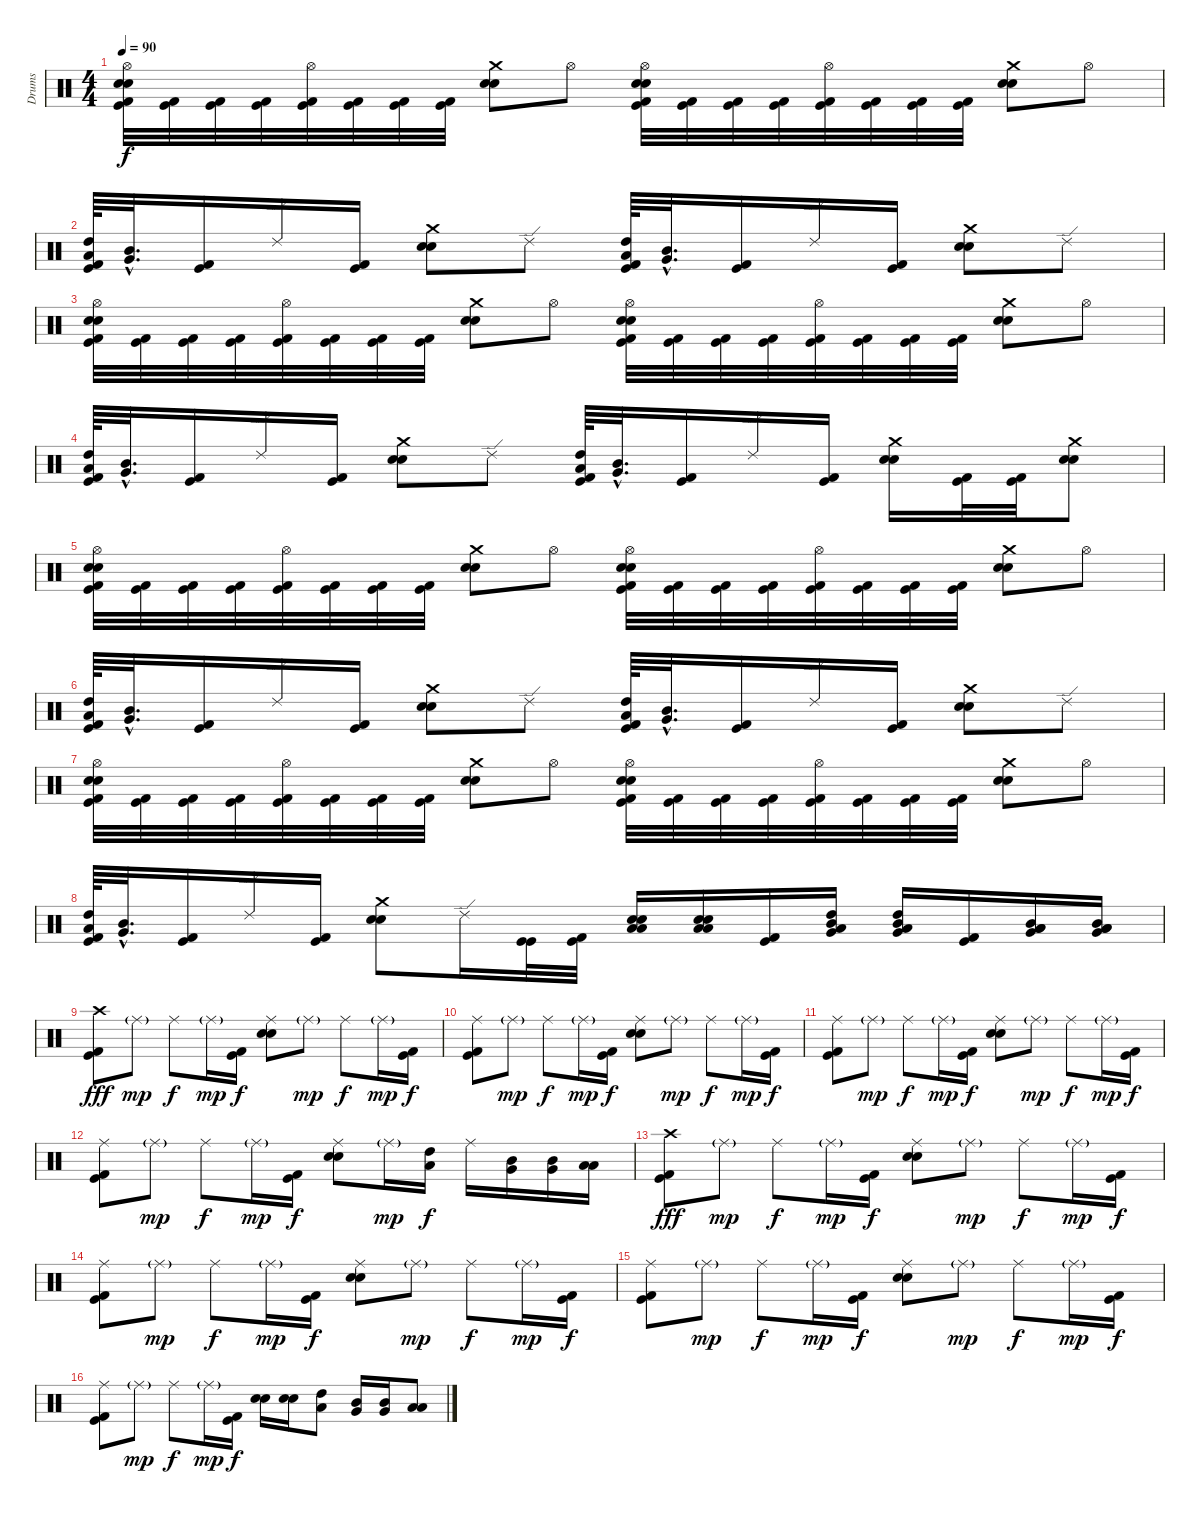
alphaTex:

\track ("Drums" "Drums") {instrument percussion}
\staff {score}
\articulation defaults
\ts (4 4)
\tempo 90
\clef neutral
\ks c
("Hi-Hat (open)" "Electric Snare (hit)" "Snare (hit) 2" "Kick (hit) 2" "Kick (hit)").32{dy f} ("Kick (hit) 2" "Kick (hit)").32 ("Kick (hit) 2" "Kick (hit)").32 ("Kick (hit) 2" "Kick (hit)").32 ("Hi-Hat (open)" "Kick (hit) 2" "Kick (hit)").32 ("Kick (hit) 2" "Kick (hit)").32 ("Kick (hit) 2" "Kick (hit)").32 ("Kick (hit) 2" "Kick (hit)").32 ("Crash medium (hit)" "Electric Snare (hit)" "Snare (hit) 2").8 "Hi-Hat (open)".8 ("Hi-Hat (open)" "Electric Snare (hit)" "Snare (hit) 2" "Kick (hit) 2" "Kick (hit)").32 ("Kick (hit) 2" "Kick (hit)").32 ("Kick (hit) 2" "Kick (hit)").32 ("Kick (hit) 2" "Kick (hit)").32 ("Hi-Hat (open)" "Kick (hit) 2" "Kick (hit)").32 ("Kick (hit) 2" "Kick (hit)").32 ("Kick (hit) 2" "Kick (hit)").32 ("Kick (hit) 2" "Kick (hit)").32 ("Crash medium (hit)" "Electric Snare (hit)" "Snare (hit) 2").8 "Hi-Hat (open)".8 |
("High Tom (hit)" "Low Tom (hit)" "Kick (hit) 2" "Kick (hit)").64 ("Mid Tom (hit)"{hac} "Very Low Tom (hit)"{hac}).32{d} ("Kick (hit) 2" "Kick (hit)").16 "Ride (edge) 2".16 ("Kick (hit) 2" "Kick (hit)").16 ("Crash medium (hit)" "Electric Snare (hit)" "Snare (hit) 2").8 "Ride (edge) 2".8 ("High Tom (hit)" "Low Tom (hit)" "Kick (hit) 2" "Kick (hit)").64 ("Mid Tom (hit)"{hac} "Very Low Tom (hit)"{hac}).32{d} ("Kick (hit) 2" "Kick (hit)").16 "Ride (edge) 2".16 ("Kick (hit) 2" "Kick (hit)").16 ("Crash medium (hit)" "Electric Snare (hit)" "Snare (hit) 2").8 "Ride (edge) 2".8 |
("Hi-Hat (open)" "Electric Snare (hit)" "Snare (hit) 2" "Kick (hit) 2" "Kick (hit)").32 ("Kick (hit) 2" "Kick (hit)").32 ("Kick (hit) 2" "Kick (hit)").32 ("Kick (hit) 2" "Kick (hit)").32 ("Hi-Hat (open)" "Kick (hit) 2" "Kick (hit)").32 ("Kick (hit) 2" "Kick (hit)").32 ("Kick (hit) 2" "Kick (hit)").32 ("Kick (hit) 2" "Kick (hit)").32 ("Crash medium (hit)" "Electric Snare (hit)" "Snare (hit) 2").8 "Hi-Hat (open)".8 ("Hi-Hat (open)" "Electric Snare (hit)" "Snare (hit) 2" "Kick (hit) 2" "Kick (hit)").32 ("Kick (hit) 2" "Kick (hit)").32 ("Kick (hit) 2" "Kick (hit)").32 ("Kick (hit) 2" "Kick (hit)").32 ("Hi-Hat (open)" "Kick (hit) 2" "Kick (hit)").32 ("Kick (hit) 2" "Kick (hit)").32 ("Kick (hit) 2" "Kick (hit)").32 ("Kick (hit) 2" "Kick (hit)").32 ("Crash medium (hit)" "Electric Snare (hit)" "Snare (hit) 2").8 "Hi-Hat (open)".8 |
("High Tom (hit)" "Low Tom (hit)" "Kick (hit) 2" "Kick (hit)").64 ("Mid Tom (hit)"{hac} "Very Low Tom (hit)"{hac}).32{d} ("Kick (hit) 2" "Kick (hit)").16 "Ride (edge) 2".16 ("Kick (hit) 2" "Kick (hit)").16 ("Crash medium (hit)" "Electric Snare (hit)" "Snare (hit) 2").8 "Ride (edge) 2".8 ("High Tom (hit)" "Low Tom (hit)" "Kick (hit) 2" "Kick (hit)").64 ("Mid Tom (hit)"{hac} "Very Low Tom (hit)"{hac}).32{d} ("Kick (hit) 2" "Kick (hit)").16 "Ride (edge) 2".16 ("Kick (hit) 2" "Kick (hit)").16 ("Crash medium (hit)" "Electric Snare (hit)" "Snare (hit) 2").16 ("Kick (hit) 2" "Kick (hit)").32 ("Kick (hit) 2" "Kick (hit)").32 ("Crash medium (hit)" "Electric Snare (hit)" "Snare (hit) 2").8 |
("Hi-Hat (open)" "Electric Snare (hit)" "Snare (hit) 2" "Kick (hit) 2" "Kick (hit)").32 ("Kick (hit) 2" "Kick (hit)").32 ("Kick (hit) 2" "Kick (hit)").32 ("Kick (hit) 2" "Kick (hit)").32 ("Hi-Hat (open)" "Kick (hit) 2" "Kick (hit)").32 ("Kick (hit) 2" "Kick (hit)").32 ("Kick (hit) 2" "Kick (hit)").32 ("Kick (hit) 2" "Kick (hit)").32 ("Crash medium (hit)" "Electric Snare (hit)" "Snare (hit) 2").8 "Hi-Hat (open)".8 ("Hi-Hat (open)" "Electric Snare (hit)" "Snare (hit) 2" "Kick (hit) 2" "Kick (hit)").32 ("Kick (hit) 2" "Kick (hit)").32 ("Kick (hit) 2" "Kick (hit)").32 ("Kick (hit) 2" "Kick (hit)").32 ("Hi-Hat (open)" "Kick (hit) 2" "Kick (hit)").32 ("Kick (hit) 2" "Kick (hit)").32 ("Kick (hit) 2" "Kick (hit)").32 ("Kick (hit) 2" "Kick (hit)").32 ("Crash medium (hit)" "Electric Snare (hit)" "Snare (hit) 2").8 "Hi-Hat (open)".8 |
("High Tom (hit)" "Low Tom (hit)" "Kick (hit) 2" "Kick (hit)").64 ("Mid Tom (hit)"{hac} "Very Low Tom (hit)"{hac}).32{d} ("Kick (hit) 2" "Kick (hit)").16 "Ride (edge) 2".16 ("Kick (hit) 2" "Kick (hit)").16 ("Crash medium (hit)" "Electric Snare (hit)" "Snare (hit) 2").8 "Ride (edge) 2".8 ("High Tom (hit)" "Low Tom (hit)" "Kick (hit) 2" "Kick (hit)").64 ("Mid Tom (hit)"{hac} "Very Low Tom (hit)"{hac}).32{d} ("Kick (hit) 2" "Kick (hit)").16 "Ride (edge) 2".16 ("Kick (hit) 2" "Kick (hit)").16 ("Crash medium (hit)" "Electric Snare (hit)" "Snare (hit) 2").8 "Ride (edge) 2".8 |
("Hi-Hat (open)" "Electric Snare (hit)" "Snare (hit) 2" "Kick (hit) 2" "Kick (hit)").32 ("Kick (hit) 2" "Kick (hit)").32 ("Kick (hit) 2" "Kick (hit)").32 ("Kick (hit) 2" "Kick (hit)").32 ("Hi-Hat (open)" "Kick (hit) 2" "Kick (hit)").32 ("Kick (hit) 2" "Kick (hit)").32 ("Kick (hit) 2" "Kick (hit)").32 ("Kick (hit) 2" "Kick (hit)").32 ("Crash medium (hit)" "Electric Snare (hit)" "Snare (hit) 2").8 "Hi-Hat (open)".8 ("Hi-Hat (open)" "Electric Snare (hit)" "Snare (hit) 2" "Kick (hit) 2" "Kick (hit)").32 ("Kick (hit) 2" "Kick (hit)").32 ("Kick (hit) 2" "Kick (hit)").32 ("Kick (hit) 2" "Kick (hit)").32 ("Hi-Hat (open)" "Kick (hit) 2" "Kick (hit)").32 ("Kick (hit) 2" "Kick (hit)").32 ("Kick (hit) 2" "Kick (hit)").32 ("Kick (hit) 2" "Kick (hit)").32 ("Crash medium (hit)" "Electric Snare (hit)" "Snare (hit) 2").8 "Hi-Hat (open)".8 |
("High Tom (hit)" "Low Tom (hit)" "Kick (hit) 2" "Kick (hit)").64 ("Mid Tom (hit)"{hac} "Very Low Tom (hit)"{hac}).32{d} ("Kick (hit) 2" "Kick (hit)").16 "Ride (edge) 2".16 ("Kick (hit) 2" "Kick (hit)").16 ("Crash medium (hit)" "Electric Snare (hit)" "Snare (hit) 2").8 "Ride (edge) 2".16 ("Kick (hit)" "Kick (hit)").32 ("Kick (hit) 2" "Kick (hit)").32 ("Low Tom (hit)" "Low Floor Tom (hit)" "Electric Snare (hit)" "Snare (hit) 2").16 ("Low Tom (hit)" "Low Floor Tom (hit)" "Electric Snare (hit)" "Snare (hit) 2").16 ("Kick (hit) 2" "Kick (hit)").16 ("High Tom (hit)" "Low Tom (hit)" "Mid Tom (hit)" "Very Low Tom (hit)").16 ("High Tom (hit)" "Low Tom (hit)" "Mid Tom (hit)" "Very Low Tom (hit)").16 ("Kick (hit) 2" "Kick (hit)").16 ("Mid Tom (hit)" "Very Low Tom (hit)" "Low Tom (hit)" "Low Floor Tom (hit)").16 ("Mid Tom (hit)" "Very Low Tom (hit)" "Low Tom (hit)" "Low Floor Tom (hit)").16 |
("Crash high (hit)" "Kick (hit) 2" "Kick (hit)").8{dy fff} "Ride (middle)"{g}.8{dy mp} "Ride (middle)".8{dy f} "Ride (middle)"{g}.16{dy mp} ("Kick (hit) 2" "Kick (hit)").16{dy f} ("Ride (middle)" "Electric Snare (hit)" "Snare (hit) 2").8 "Ride (middle)"{g}.8{dy mp} "Ride (middle)".8{dy f} "Ride (middle)"{g}.16{dy mp} ("Kick (hit) 2" "Kick (hit)").16{dy f} |
("Ride (middle)" "Kick (hit) 2" "Kick (hit)").8 "Ride (middle)"{g}.8{dy mp} "Ride (middle)".8{dy f} "Ride (middle)"{g}.16{dy mp} ("Kick (hit) 2" "Kick (hit)").16{dy f} ("Ride (middle)" "Electric Snare (hit)" "Snare (hit) 2").8 "Ride (middle)"{g}.8{dy mp} "Ride (middle)".8{dy f} "Ride (middle)"{g}.16{dy mp} ("Kick (hit) 2" "Kick (hit)").16{dy f} |
("Ride (middle)" "Kick (hit) 2" "Kick (hit)").8 "Ride (middle)"{g}.8{dy mp} "Ride (middle)".8{dy f} "Ride (middle)"{g}.16{dy mp} ("Kick (hit) 2" "Kick (hit)").16{dy f} ("Ride (middle)" "Electric Snare (hit)" "Snare (hit) 2").8 "Ride (middle)"{g}.8{dy mp} "Ride (middle)".8{dy f} "Ride (middle)"{g}.16{dy mp} ("Kick (hit) 2" "Kick (hit)").16{dy f} |
("Ride (middle)" "Kick (hit) 2" "Kick (hit)").8 "Ride (middle)"{g}.8{dy mp} "Ride (middle)".8{dy f} "Ride (middle)"{g}.16{dy mp} ("Kick (hit) 2" "Kick (hit)").16{dy f} ("Ride (middle)" "Electric Snare (hit)" "Snare (hit) 2").8 "Ride (middle)"{g}.16{dy mp} ("High Tom (hit)" "Low Tom (hit)").16{dy f} "Ride (middle)".16 ("Mid Tom (hit)" "Very Low Tom (hit)").16 ("Mid Tom (hit)" "Very Low Tom (hit)").16 ("Low Tom (hit)" "Low Floor Tom (hit)").16 |
("Crash high (hit)" "Kick (hit) 2" "Kick (hit)").8{dy fff} "Ride (middle)"{g}.8{dy mp} "Ride (middle)".8{dy f} "Ride (middle)"{g}.16{dy mp} ("Kick (hit) 2" "Kick (hit)").16{dy f} ("Ride (middle)" "Electric Snare (hit)" "Snare (hit) 2").8 "Ride (middle)"{g}.8{dy mp} "Ride (middle)".8{dy f} "Ride (middle)"{g}.16{dy mp} ("Kick (hit) 2" "Kick (hit)").16{dy f} |
("Ride (middle)" "Kick (hit) 2" "Kick (hit)").8 "Ride (middle)"{g}.8{dy mp} "Ride (middle)".8{dy f} "Ride (middle)"{g}.16{dy mp} ("Kick (hit) 2" "Kick (hit)").16{dy f} ("Ride (middle)" "Electric Snare (hit)" "Snare (hit) 2").8 "Ride (middle)"{g}.8{dy mp} "Ride (middle)".8{dy f} "Ride (middle)"{g}.16{dy mp} ("Kick (hit) 2" "Kick (hit)").16{dy f} |
("Ride (middle)" "Kick (hit) 2" "Kick (hit)").8 "Ride (middle)"{g}.8{dy mp} "Ride (middle)".8{dy f} "Ride (middle)"{g}.16{dy mp} ("Kick (hit) 2" "Kick (hit)").16{dy f} ("Ride (middle)" "Electric Snare (hit)" "Snare (hit) 2").8 "Ride (middle)"{g}.8{dy mp} "Ride (middle)".8{dy f} "Ride (middle)"{g}.16{dy mp} ("Kick (hit) 2" "Kick (hit)").16{dy f} |
("Ride (middle)" "Kick (hit) 2" "Kick (hit)").8 "Ride (middle)"{g}.8{dy mp} "Ride (middle)".8{dy f} "Ride (middle)"{g}.16{dy mp} ("Kick (hit) 2" "Kick (hit)").16{dy f} ("Electric Snare (hit)" "Snare (hit) 2").16 ("Electric Snare (hit)" "Snare (hit) 2").16 ("High Tom (hit)" "Low Tom (hit)").8 ("Mid Tom (hit)" "Very Low Tom (hit)").16 ("Mid Tom (hit)" "Very Low Tom (hit)").16 ("Low Tom (hit)" "Low Floor Tom (hit)").8
